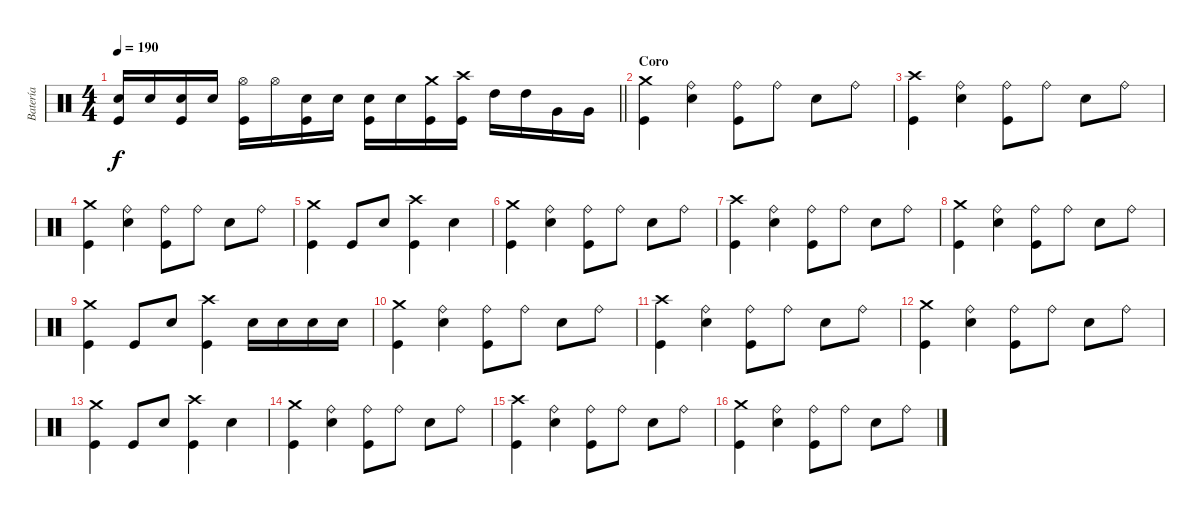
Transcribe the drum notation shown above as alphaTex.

\track ("Batería" "Batería") {instrument percussion}
\staff {score}
\articulation defaults
\ts (4 4)
\tempo 190
\clef neutral
\barLineRight lightlight
\ks c
("Electric Snare (hit)" "Kick (hit)").16{dy f} "Electric Snare (hit)".16 ("Electric Snare (hit)" "Kick (hit)").16 "Electric Snare (hit)".16 ("Hi-Hat (open)" "Kick (hit)").16 "Hi-Hat (open)".16 ("Electric Snare (hit)" "Kick (hit)").16 "Electric Snare (hit)".16 ("Electric Snare (hit)" "Kick (hit)").16 "Electric Snare (hit)".16 ("Crash medium (hit)" "Kick (hit)").16 ("Crash high (hit)" "Kick (hit)").16 "High Tom (hit)".16 "High Tom (hit)".16 "Very Low Tom (hit)".16 "Very Low Tom (hit)".16 |
\section ("" "Coro")
("Crash medium (hit)" "Kick (hit)").4 ("Ride (bell)" "Electric Snare (hit)").4 ("Ride (bell)" "Kick (hit)").8 "Ride (bell)".8 "Electric Snare (hit)".8 "Ride (bell)".8 |
("Crash high (hit)" "Kick (hit)").4 ("Ride (bell)" "Electric Snare (hit)").4 ("Ride (bell)" "Kick (hit)").8 "Ride (bell)".8 "Electric Snare (hit)".8 "Ride (bell)".8 |
("Crash medium (hit)" "Kick (hit)").4 ("Ride (bell)" "Electric Snare (hit)").4 ("Ride (bell)" "Kick (hit)").8 "Ride (bell)".8 "Electric Snare (hit)".8 "Ride (bell)".8 |
("Crash medium (hit)" "Kick (hit)").4 "Kick (hit)".8 "Electric Snare (hit)".8 ("Crash high (hit)" "Kick (hit)").4 "Electric Snare (hit)".4 |
("Crash medium (hit)" "Kick (hit)").4 ("Ride (bell)" "Electric Snare (hit)").4 ("Ride (bell)" "Kick (hit)").8 "Ride (bell)".8 "Electric Snare (hit)".8 "Ride (bell)".8 |
("Crash high (hit)" "Kick (hit)").4 ("Ride (bell)" "Electric Snare (hit)").4 ("Ride (bell)" "Kick (hit)").8 "Ride (bell)".8 "Electric Snare (hit)".8 "Ride (bell)".8 |
("Crash medium (hit)" "Kick (hit)").4 ("Ride (bell)" "Electric Snare (hit)").4 ("Ride (bell)" "Kick (hit)").8 "Ride (bell)".8 "Electric Snare (hit)".8 "Ride (bell)".8 |
("Crash medium (hit)" "Kick (hit)").4 "Kick (hit)".8 "Electric Snare (hit)".8 ("Crash high (hit)" "Kick (hit)").4 "Electric Snare (hit)".16 "Electric Snare (hit)".16 "Electric Snare (hit)".16 "Electric Snare (hit)".16 |
("Crash medium (hit)" "Kick (hit)").4 ("Ride (bell)" "Electric Snare (hit)").4 ("Ride (bell)" "Kick (hit)").8 "Ride (bell)".8 "Electric Snare (hit)".8 "Ride (bell)".8 |
("Crash high (hit)" "Kick (hit)").4 ("Ride (bell)" "Electric Snare (hit)").4 ("Ride (bell)" "Kick (hit)").8 "Ride (bell)".8 "Electric Snare (hit)".8 "Ride (bell)".8 |
("Crash medium (hit)" "Kick (hit)").4 ("Ride (bell)" "Electric Snare (hit)").4 ("Ride (bell)" "Kick (hit)").8 "Ride (bell)".8 "Electric Snare (hit)".8 "Ride (bell)".8 |
("Crash medium (hit)" "Kick (hit)").4 "Kick (hit)".8 "Electric Snare (hit)".8 ("Crash high (hit)" "Kick (hit)").4 "Electric Snare (hit)".4 |
("Crash medium (hit)" "Kick (hit)").4 ("Ride (bell)" "Electric Snare (hit)").4 ("Ride (bell)" "Kick (hit)").8 "Ride (bell)".8 "Electric Snare (hit)".8 "Ride (bell)".8 |
("Crash high (hit)" "Kick (hit)").4 ("Ride (bell)" "Electric Snare (hit)").4 ("Ride (bell)" "Kick (hit)").8 "Ride (bell)".8 "Electric Snare (hit)".8 "Ride (bell)".8 |
("Crash medium (hit)" "Kick (hit)").4 ("Ride (bell)" "Electric Snare (hit)").4 ("Ride (bell)" "Kick (hit)").8 "Ride (bell)".8 "Electric Snare (hit)".8 "Ride (bell)".8
